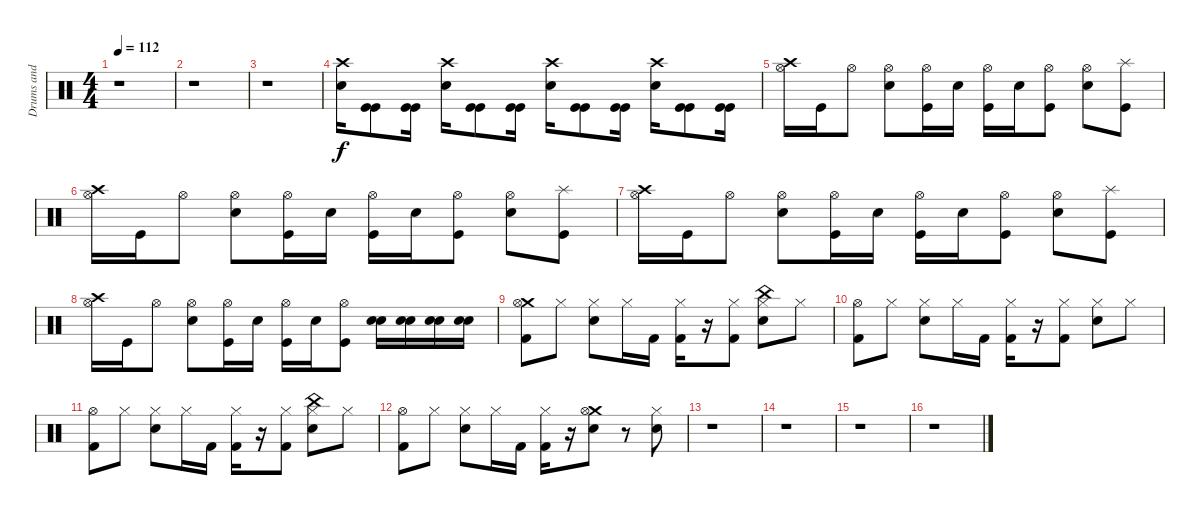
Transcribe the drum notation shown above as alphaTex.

\track ("Drums and Percussions" "Drums and ") {instrument percussion}
\staff {score}
\articulation defaults
\ts (4 4)
\tempo 112
\clef neutral
\ks c
r.1{dy f} |
r.1 |
r.1 |
("Crash high (hit)" "Electric Snare (hit)").16 ("Kick (hit)" "Kick (hit)").8 ("Kick (hit)" "Kick (hit)").16 ("Crash high (hit)" "Electric Snare (hit)").16 ("Kick (hit)" "Kick (hit)").8 ("Kick (hit)" "Kick (hit)").16 ("Crash high (hit)" "Electric Snare (hit)").16 ("Kick (hit)" "Kick (hit)").8 ("Kick (hit)" "Kick (hit)").16 ("Crash high (hit)" "Electric Snare (hit)").16 ("Kick (hit)" "Kick (hit)").8 ("Kick (hit)" "Kick (hit)").16 |
("Crash high (hit)" "Hi-Hat (open)").16 "Kick (hit)".16 "Hi-Hat (open)".8 ("Electric Snare (hit)" "Hi-Hat (open)").8 ("Hi-Hat (open)" "Kick (hit)").16 "Electric Snare (hit)".16 ("Hi-Hat (open)" "Kick (hit)").16 "Electric Snare (hit)".16 ("Hi-Hat (open)" "Kick (hit)").8 ("Electric Snare (hit)" "Hi-Hat (open)").8 ("Splash (hit)" "Kick (hit)").8 |
("Crash high (hit)" "Hi-Hat (open)").16 "Kick (hit)".16 "Hi-Hat (open)".8 ("Electric Snare (hit)" "Hi-Hat (open)").8 ("Hi-Hat (open)" "Kick (hit)").16 "Electric Snare (hit)".16 ("Hi-Hat (open)" "Kick (hit)").16 "Electric Snare (hit)".16 ("Hi-Hat (open)" "Kick (hit)").8 ("Electric Snare (hit)" "Hi-Hat (open)").8 ("Splash (hit)" "Kick (hit)").8 |
("Crash high (hit)" "Hi-Hat (open)").16 "Kick (hit)".16 "Hi-Hat (open)".8 ("Electric Snare (hit)" "Hi-Hat (open)").8 ("Hi-Hat (open)" "Kick (hit)").16 "Electric Snare (hit)".16 ("Hi-Hat (open)" "Kick (hit)").16 "Electric Snare (hit)".16 ("Hi-Hat (open)" "Kick (hit)").8 ("Electric Snare (hit)" "Hi-Hat (open)").8 ("Splash (hit)" "Kick (hit)").8 |
("Crash high (hit)" "Hi-Hat (open)").16 "Kick (hit)".16 "Hi-Hat (open)".8 ("Electric Snare (hit)" "Hi-Hat (open)").8 ("Hi-Hat (open)" "Kick (hit)").16 "Electric Snare (hit)".16 ("Hi-Hat (open)" "Kick (hit)").16 "Electric Snare (hit)".16 ("Hi-Hat (open)" "Kick (hit)").8 ("Electric Snare (hit)" "Snare (hit) 2").16 ("Electric Snare (hit)" "Snare (hit) 2").16 ("Electric Snare (hit)" "Snare (hit) 2").16 ("Electric Snare (hit)" "Snare (hit) 2").16 |
("Crash medium (hit)" "Hi-Hat (open)" "Kick (hit) 2").8 "Hi-Hat (closed)".8 ("Hi-Hat (closed)" "Electric Snare (hit)").8 "Hi-Hat (closed)".16 "Kick (hit) 2".16 ("Hi-Hat (closed)" "Kick (hit) 2").16 r.16 ("Hi-Hat (closed)" "Kick (hit) 2").8 ("China (hit)" "Hi-Hat (closed)" "Electric Snare (hit)").8 "Hi-Hat (closed)".8 |
("Hi-Hat (open)" "Kick (hit) 2").8 "Hi-Hat (closed)".8 ("Hi-Hat (closed)" "Electric Snare (hit)").8 "Hi-Hat (closed)".16 "Kick (hit) 2".16 ("Hi-Hat (closed)" "Kick (hit) 2").16 r.16 ("Hi-Hat (closed)" "Kick (hit) 2").8 ("Hi-Hat (closed)" "Electric Snare (hit)").8 "Hi-Hat (closed)".8 |
("Hi-Hat (open)" "Kick (hit) 2").8 "Hi-Hat (closed)".8 ("Hi-Hat (closed)" "Electric Snare (hit)").8 "Hi-Hat (closed)".16 "Kick (hit) 2".16 ("Hi-Hat (closed)" "Kick (hit) 2").16 r.16 ("Hi-Hat (closed)" "Kick (hit) 2").8 ("China (hit)" "Hi-Hat (closed)" "Electric Snare (hit)").8 "Hi-Hat (closed)".8 |
("Hi-Hat (open)" "Kick (hit) 2").8 "Hi-Hat (closed)".8 ("Hi-Hat (closed)" "Electric Snare (hit)").8 "Hi-Hat (closed)".16 "Kick (hit) 2".16 ("Hi-Hat (closed)" "Kick (hit) 2").16 r.16 ("Crash medium (hit)" "Hi-Hat (open)" "Electric Snare (hit)").8 r.8 ("Electric Snare (hit)" "Hi-Hat (closed)").8 |
r.1 |
r.1 |
r.1 |
r.1
